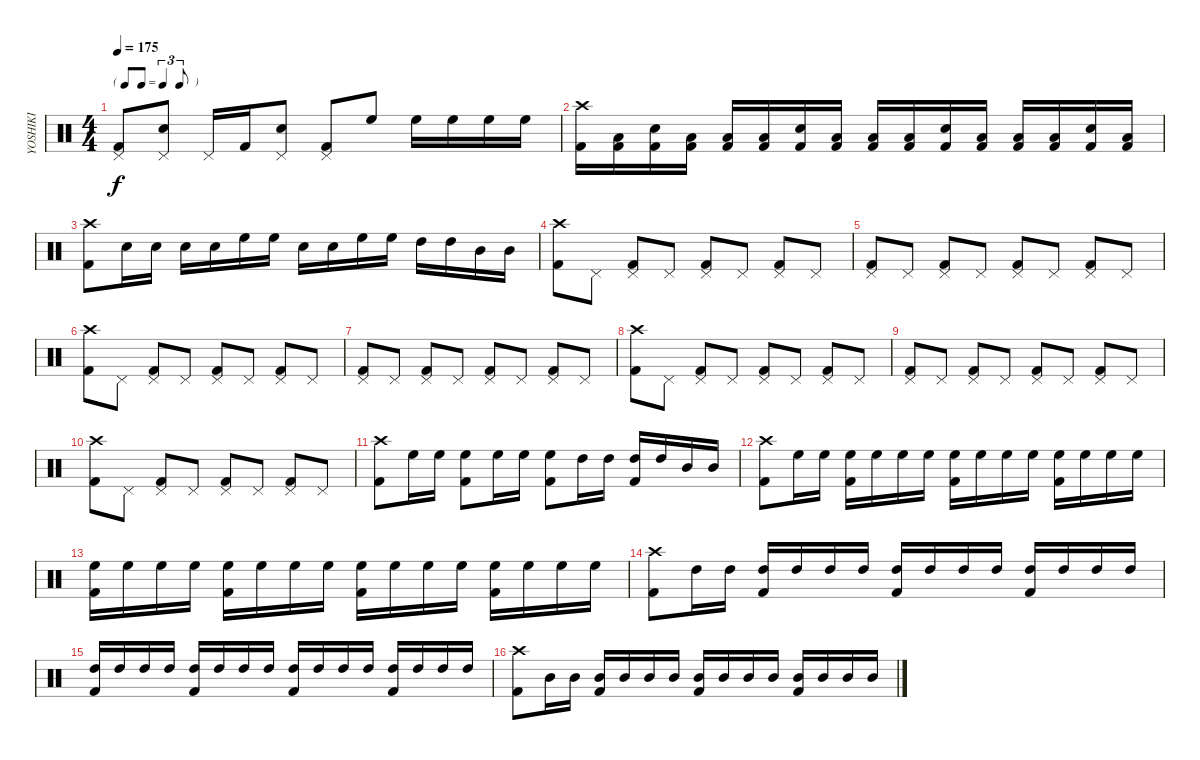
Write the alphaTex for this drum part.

\track ("YOSHIKI" "YOSHIKI") {instrument percussion}
\staff {score}
\articulation defaults
\ts (4 4)
\tf triplet8th
\tempo 175
\clef neutral
\ks c
("Pedal Hi-Hat (hit)" "Kick (hit) 2").8{dy f} ("Pedal Hi-Hat (hit)" "Snare (hit) 2").8 "Pedal Hi-Hat (hit)".16 "Kick (hit) 2".16 ("Pedal Hi-Hat (hit)" "Snare (hit) 2").8 ("Pedal Hi-Hat (hit)" "Kick (hit) 2").8 "High Floor Tom (hit)".8 "High Floor Tom (hit)".16 "High Floor Tom (hit)".16 "High Floor Tom (hit)".16 "High Floor Tom (hit)".16 |
("Crash high (hit)" "Kick (hit) 2").16 ("Low Tom (hit)" "Kick (hit) 2").16 ("Snare (hit) 2" "Kick (hit) 2").16 ("Low Tom (hit)" "Kick (hit) 2").16 ("Low Tom (hit)" "Kick (hit) 2").16 ("Low Tom (hit)" "Kick (hit) 2").16 ("Snare (hit) 2" "Kick (hit) 2").16 ("Low Tom (hit)" "Kick (hit) 2").16 ("Low Tom (hit)" "Kick (hit) 2").16 ("Low Tom (hit)" "Kick (hit) 2").16 ("Snare (hit) 2" "Kick (hit) 2").16 ("Low Tom (hit)" "Kick (hit) 2").16 ("Low Tom (hit)" "Kick (hit) 2").16 ("Low Tom (hit)" "Kick (hit) 2").16 ("Snare (hit) 2" "Kick (hit) 2").16 ("Low Tom (hit)" "Kick (hit) 2").16 |
("Crash high (hit)" "Kick (hit) 2").8 "Snare (hit) 2".16 "Snare (hit) 2".16 "Snare (hit) 2".16 "Snare (hit) 2".16 "High Floor Tom (hit)".16 "High Floor Tom (hit)".16 "Snare (hit) 2".16 "Snare (hit) 2".16 "High Floor Tom (hit)".16 "High Floor Tom (hit)".16 "High Tom (hit)".16 "High Tom (hit)".16 "Mid Tom (hit)".16 "Mid Tom (hit)".16 |
("Crash high (hit)" "Kick (hit) 2").8 "Pedal Hi-Hat (hit)".8 ("Pedal Hi-Hat (hit)" "Kick (hit) 2").8 "Pedal Hi-Hat (hit)".8 ("Pedal Hi-Hat (hit)" "Kick (hit) 2").8 "Pedal Hi-Hat (hit)".8 ("Pedal Hi-Hat (hit)" "Kick (hit) 2").8 "Pedal Hi-Hat (hit)".8 |
("Pedal Hi-Hat (hit)" "Kick (hit) 2").8 "Pedal Hi-Hat (hit)".8 ("Pedal Hi-Hat (hit)" "Kick (hit) 2").8 "Pedal Hi-Hat (hit)".8 ("Pedal Hi-Hat (hit)" "Kick (hit) 2").8 "Pedal Hi-Hat (hit)".8 ("Pedal Hi-Hat (hit)" "Kick (hit) 2").8 "Pedal Hi-Hat (hit)".8 |
("Crash high (hit)" "Kick (hit) 2").8 "Pedal Hi-Hat (hit)".8 ("Pedal Hi-Hat (hit)" "Kick (hit) 2").8 "Pedal Hi-Hat (hit)".8 ("Pedal Hi-Hat (hit)" "Kick (hit) 2").8 "Pedal Hi-Hat (hit)".8 ("Pedal Hi-Hat (hit)" "Kick (hit) 2").8 "Pedal Hi-Hat (hit)".8 |
("Pedal Hi-Hat (hit)" "Kick (hit) 2").8 "Pedal Hi-Hat (hit)".8 ("Pedal Hi-Hat (hit)" "Kick (hit) 2").8 "Pedal Hi-Hat (hit)".8 ("Pedal Hi-Hat (hit)" "Kick (hit) 2").8 "Pedal Hi-Hat (hit)".8 ("Pedal Hi-Hat (hit)" "Kick (hit) 2").8 "Pedal Hi-Hat (hit)".8 |
("Crash high (hit)" "Kick (hit) 2").8 "Pedal Hi-Hat (hit)".8 ("Pedal Hi-Hat (hit)" "Kick (hit) 2").8 "Pedal Hi-Hat (hit)".8 ("Pedal Hi-Hat (hit)" "Kick (hit) 2").8 "Pedal Hi-Hat (hit)".8 ("Pedal Hi-Hat (hit)" "Kick (hit) 2").8 "Pedal Hi-Hat (hit)".8 |
("Pedal Hi-Hat (hit)" "Kick (hit) 2").8 "Pedal Hi-Hat (hit)".8 ("Pedal Hi-Hat (hit)" "Kick (hit) 2").8 "Pedal Hi-Hat (hit)".8 ("Pedal Hi-Hat (hit)" "Kick (hit) 2").8 "Pedal Hi-Hat (hit)".8 ("Pedal Hi-Hat (hit)" "Kick (hit) 2").8 "Pedal Hi-Hat (hit)".8 |
("Crash high (hit)" "Kick (hit) 2").8 "Pedal Hi-Hat (hit)".8 ("Pedal Hi-Hat (hit)" "Kick (hit) 2").8 "Pedal Hi-Hat (hit)".8 ("Pedal Hi-Hat (hit)" "Kick (hit) 2").8 "Pedal Hi-Hat (hit)".8 ("Pedal Hi-Hat (hit)" "Kick (hit) 2").8 "Pedal Hi-Hat (hit)".8 |
("Crash high (hit)" "Kick (hit) 2").8 "High Floor Tom (hit)".16 "High Floor Tom (hit)".16 ("High Floor Tom (hit)" "Kick (hit) 2").8 "High Floor Tom (hit)".16 "High Floor Tom (hit)".16 ("High Floor Tom (hit)" "Kick (hit) 2").8 "High Tom (hit)".16 "High Tom (hit)".16 ("High Tom (hit)" "Kick (hit) 2").16 "High Tom (hit)".16 "Mid Tom (hit)".16 "Mid Tom (hit)".16 |
("Crash high (hit)" "Kick (hit) 2").8 "High Floor Tom (hit)".16 "High Floor Tom (hit)".16 ("High Floor Tom (hit)" "Kick (hit) 2").16 "High Floor Tom (hit)".16 "High Floor Tom (hit)".16 "High Floor Tom (hit)".16 ("High Floor Tom (hit)" "Kick (hit) 2").16 "High Floor Tom (hit)".16 "High Floor Tom (hit)".16 "High Floor Tom (hit)".16 ("High Floor Tom (hit)" "Kick (hit) 2").16 "High Floor Tom (hit)".16 "High Floor Tom (hit)".16 "High Floor Tom (hit)".16 |
("High Floor Tom (hit)" "Kick (hit) 2").16 "High Floor Tom (hit)".16 "High Floor Tom (hit)".16 "High Floor Tom (hit)".16 ("High Floor Tom (hit)" "Kick (hit) 2").16 "High Floor Tom (hit)".16 "High Floor Tom (hit)".16 "High Floor Tom (hit)".16 ("High Floor Tom (hit)" "Kick (hit) 2").16 "High Floor Tom (hit)".16 "High Floor Tom (hit)".16 "High Floor Tom (hit)".16 ("High Floor Tom (hit)" "Kick (hit) 2").16 "High Floor Tom (hit)".16 "High Floor Tom (hit)".16 "High Floor Tom (hit)".16 |
("Crash high (hit)" "Kick (hit) 2").8 "High Tom (hit)".16 "High Tom (hit)".16 ("High Tom (hit)" "Kick (hit) 2").16 "High Tom (hit)".16 "High Tom (hit)".16 "High Tom (hit)".16 ("High Tom (hit)" "Kick (hit) 2").16 "High Tom (hit)".16 "High Tom (hit)".16 "High Tom (hit)".16 ("High Tom (hit)" "Kick (hit) 2").16 "High Tom (hit)".16 "High Tom (hit)".16 "High Tom (hit)".16 |
("High Tom (hit)" "Kick (hit) 2").16 "High Tom (hit)".16 "High Tom (hit)".16 "High Tom (hit)".16 ("High Tom (hit)" "Kick (hit) 2").16 "High Tom (hit)".16 "High Tom (hit)".16 "High Tom (hit)".16 ("High Tom (hit)" "Kick (hit) 2").16 "High Tom (hit)".16 "High Tom (hit)".16 "High Tom (hit)".16 ("High Tom (hit)" "Kick (hit) 2").16 "High Tom (hit)".16 "High Tom (hit)".16 "High Tom (hit)".16 |
("Crash high (hit)" "Kick (hit) 2").8 "Mid Tom (hit)".16 "Mid Tom (hit)".16 ("Mid Tom (hit)" "Kick (hit) 2").16 "Mid Tom (hit)".16 "Mid Tom (hit)".16 "Mid Tom (hit)".16 ("Mid Tom (hit)" "Kick (hit) 2").16 "Mid Tom (hit)".16 "Mid Tom (hit)".16 "Mid Tom (hit)".16 ("Mid Tom (hit)" "Kick (hit) 2").16 "Mid Tom (hit)".16 "Mid Tom (hit)".16 "Mid Tom (hit)".16
